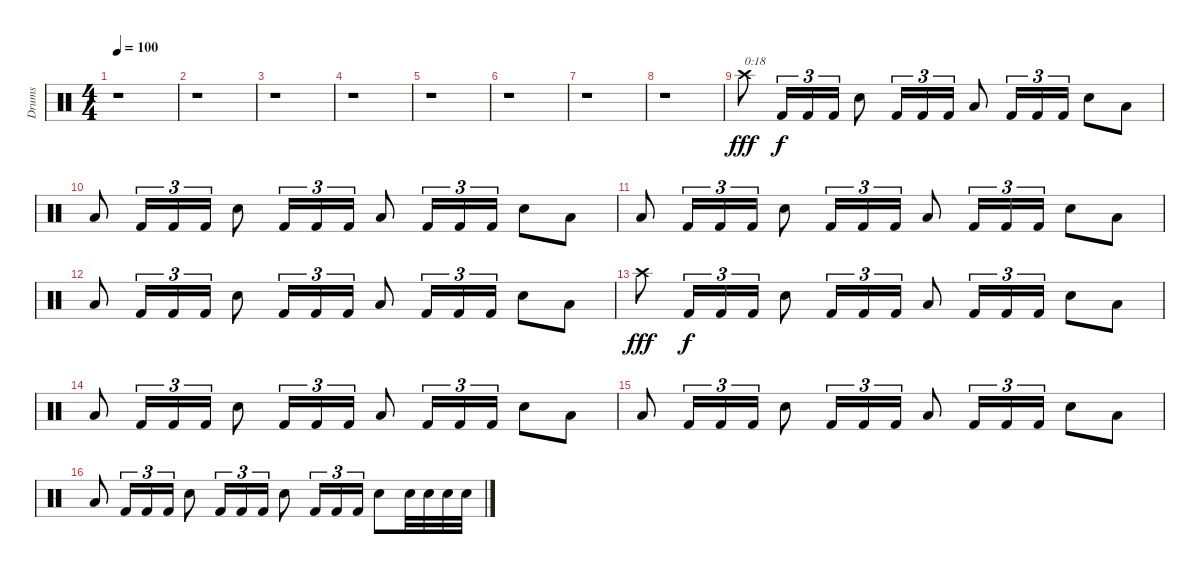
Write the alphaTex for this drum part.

\track ("Drums" "Drums") {instrument percussion}
\staff {score}
\articulation defaults
\ts (4 4)
\tempo 100
\clef neutral
\ks c
r.1{dy fff} |
r.1 |
r.1 |
r.1 |
r.1 |
r.1 |
r.1 |
r.1 |
"Crash high (hit)".8{txt "0:18"} "Kick (hit) 2".16{tu (3 2) dy f} "Kick (hit) 2".16{tu (3 2)} "Kick (hit) 2".16{tu (3 2)} "Electric Snare (hit)".8 "Kick (hit) 2".16{tu (3 2)} "Kick (hit) 2".16{tu (3 2)} "Kick (hit) 2".16{tu (3 2)} "Low Tom (hit)".8 "Kick (hit) 2".16{tu (3 2)} "Kick (hit) 2".16{tu (3 2)} "Kick (hit) 2".16{tu (3 2)} "Electric Snare (hit)".8 "Low Tom (hit)".8 |
"Low Tom (hit)".8 "Kick (hit) 2".16{tu (3 2)} "Kick (hit) 2".16{tu (3 2)} "Kick (hit) 2".16{tu (3 2)} "Electric Snare (hit)".8 "Kick (hit) 2".16{tu (3 2)} "Kick (hit) 2".16{tu (3 2)} "Kick (hit) 2".16{tu (3 2)} "Low Tom (hit)".8 "Kick (hit) 2".16{tu (3 2)} "Kick (hit) 2".16{tu (3 2)} "Kick (hit) 2".16{tu (3 2)} "Electric Snare (hit)".8 "Low Tom (hit)".8 |
"Low Tom (hit)".8 "Kick (hit) 2".16{tu (3 2)} "Kick (hit) 2".16{tu (3 2)} "Kick (hit) 2".16{tu (3 2)} "Electric Snare (hit)".8 "Kick (hit) 2".16{tu (3 2)} "Kick (hit) 2".16{tu (3 2)} "Kick (hit) 2".16{tu (3 2)} "Low Tom (hit)".8 "Kick (hit) 2".16{tu (3 2)} "Kick (hit) 2".16{tu (3 2)} "Kick (hit) 2".16{tu (3 2)} "Electric Snare (hit)".8 "Low Tom (hit)".8 |
"Low Tom (hit)".8 "Kick (hit) 2".16{tu (3 2)} "Kick (hit) 2".16{tu (3 2)} "Kick (hit) 2".16{tu (3 2)} "Electric Snare (hit)".8 "Kick (hit) 2".16{tu (3 2)} "Kick (hit) 2".16{tu (3 2)} "Kick (hit) 2".16{tu (3 2)} "Low Tom (hit)".8 "Kick (hit) 2".16{tu (3 2)} "Kick (hit) 2".16{tu (3 2)} "Kick (hit) 2".16{tu (3 2)} "Electric Snare (hit)".8 "Low Tom (hit)".8 |
"Crash high (hit)".8{dy fff} "Kick (hit) 2".16{tu (3 2) dy f} "Kick (hit) 2".16{tu (3 2)} "Kick (hit) 2".16{tu (3 2)} "Electric Snare (hit)".8 "Kick (hit) 2".16{tu (3 2)} "Kick (hit) 2".16{tu (3 2)} "Kick (hit) 2".16{tu (3 2)} "Low Tom (hit)".8 "Kick (hit) 2".16{tu (3 2)} "Kick (hit) 2".16{tu (3 2)} "Kick (hit) 2".16{tu (3 2)} "Electric Snare (hit)".8 "Low Tom (hit)".8 |
"Low Tom (hit)".8 "Kick (hit) 2".16{tu (3 2)} "Kick (hit) 2".16{tu (3 2)} "Kick (hit) 2".16{tu (3 2)} "Electric Snare (hit)".8 "Kick (hit) 2".16{tu (3 2)} "Kick (hit) 2".16{tu (3 2)} "Kick (hit) 2".16{tu (3 2)} "Low Tom (hit)".8 "Kick (hit) 2".16{tu (3 2)} "Kick (hit) 2".16{tu (3 2)} "Kick (hit) 2".16{tu (3 2)} "Electric Snare (hit)".8 "Low Tom (hit)".8 |
"Low Tom (hit)".8 "Kick (hit) 2".16{tu (3 2)} "Kick (hit) 2".16{tu (3 2)} "Kick (hit) 2".16{tu (3 2)} "Electric Snare (hit)".8 "Kick (hit) 2".16{tu (3 2)} "Kick (hit) 2".16{tu (3 2)} "Kick (hit) 2".16{tu (3 2)} "Low Tom (hit)".8 "Kick (hit) 2".16{tu (3 2)} "Kick (hit) 2".16{tu (3 2)} "Kick (hit) 2".16{tu (3 2)} "Electric Snare (hit)".8 "Low Tom (hit)".8 |
"Low Tom (hit)".8 "Kick (hit) 2".16{tu (3 2)} "Kick (hit) 2".16{tu (3 2)} "Kick (hit) 2".16{tu (3 2)} "Electric Snare (hit)".8 "Kick (hit) 2".16{tu (3 2)} "Kick (hit) 2".16{tu (3 2)} "Kick (hit) 2".16{tu (3 2)} "Electric Snare (hit)".8 "Kick (hit) 2".16{tu (3 2)} "Kick (hit) 2".16{tu (3 2)} "Kick (hit) 2".16{tu (3 2)} "Electric Snare (hit)".8 "Electric Snare (hit)".32 "Electric Snare (hit)".32 "Electric Snare (hit)".32 "Electric Snare (hit)".32
